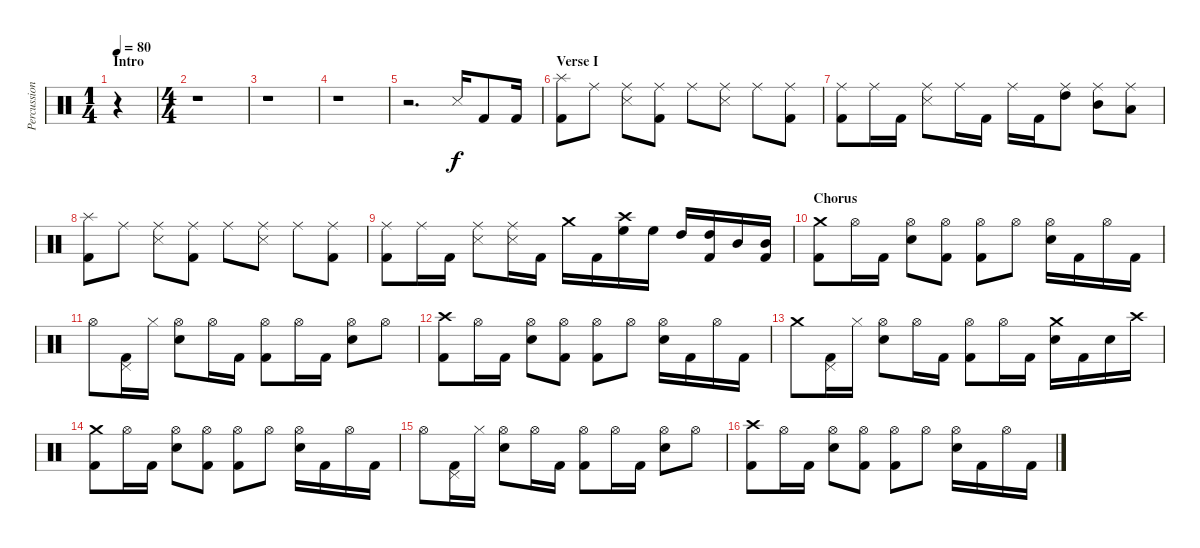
\track ("Percussion" "Percussion") {instrument percussion}
\staff {score}
\articulation defaults
\ts (1 4)
\section ("" "Intro")
\tempo 80
\clef neutral
\ks c
r.4{dy f volume 12 balance 8} |
\ts (4 4)
r.1 |
r.1 |
r.1 |
r.2{d} "Snare (side stick) 3".16 "Kick (hit) 2".8 "Kick (hit) 2".16 |
\section ("" "Verse I")
("Splash (hit)" "Kick (hit) 2").8 "Ride (middle)".8 ("Ride (middle)" "Snare (side stick) 3").8 ("Ride (middle)" "Kick (hit) 2").8 "Ride (middle)".8 ("Ride (middle)" "Snare (side stick) 3").8 "Ride (middle)".8 ("Ride (middle)" "Kick (hit) 2").8 |
("Ride (middle)" "Kick (hit) 2").8 "Ride (middle)".16 "Kick (hit) 2".16 ("Ride (middle)" "Snare (side stick) 3").8 "Ride (middle)".16 "Kick (hit) 2".16 "Ride (middle)".16 "Kick (hit) 2".16 ("Ride (middle)" "High Tom (hit)").8 ("Ride (middle)" "Mid Tom (hit)").8 ("Ride (middle)" "Low Tom (hit)").8 |
("Splash (hit)" "Kick (hit) 2").8 "Ride (middle)".8 ("Ride (middle)" "Snare (side stick) 3").8 ("Ride (middle)" "Kick (hit) 2").8 "Ride (middle)".8 ("Ride (middle)" "Snare (side stick) 3").8 "Ride (middle)".8 ("Ride (middle)" "Kick (hit) 2").8 |
("Ride (middle)" "Kick (hit) 2").8 "Ride (middle)".16 "Kick (hit) 2".16 ("Ride (middle)" "Snare (side stick) 3").8 ("Ride (middle)" "Snare (side stick) 3").16 "Kick (hit) 2".16 "Crash medium (hit)".16 "Kick (hit) 2".16 ("Crash high (hit)" "High Floor Tom (hit)").16 "High Floor Tom (hit)".16 "High Tom (hit)".16 ("High Tom (hit)" "Kick (hit) 2").16 "Mid Tom (hit)".16 ("Mid Tom (hit)" "Kick (hit) 2").16 |
\section ("" "Chorus")
("Crash medium (hit)" "Kick (hit) 2").8 "Hi-Hat (open)".16 "Kick (hit) 2".16 ("Hi-Hat (open)" "Electric Snare (hit)").8 ("Hi-Hat (open)" "Kick (hit) 2").8 ("Hi-Hat (open)" "Kick (hit) 2").8 "Hi-Hat (open)".8 ("Hi-Hat (open)" "Electric Snare (hit)").16 "Kick (hit) 2".16 "Hi-Hat (open)".16 "Kick (hit) 2".16 |
"Hi-Hat (open)".8 ("Pedal Hi-Hat (hit)" "Kick (hit) 2").16 "Hi-Hat (closed)".16 ("Hi-Hat (open)" "Electric Snare (hit)").8 "Hi-Hat (open)".16 "Kick (hit) 2".16 ("Hi-Hat (open)" "Kick (hit) 2").8 "Hi-Hat (open)".16 "Kick (hit) 2".16 ("Hi-Hat (open)" "Electric Snare (hit)").8 "Hi-Hat (open)".8 |
("Crash high (hit)" "Kick (hit) 2").8 "Hi-Hat (open)".16 "Kick (hit) 2".16 ("Hi-Hat (open)" "Electric Snare (hit)").8 ("Hi-Hat (open)" "Kick (hit) 2").8 ("Hi-Hat (open)" "Kick (hit) 2").8 "Hi-Hat (open)".8 ("Hi-Hat (open)" "Electric Snare (hit)").16 "Kick (hit) 2".16 "Hi-Hat (open)".16 "Kick (hit) 2".16 |
"Crash medium (hit)".8 ("Pedal Hi-Hat (hit)" "Kick (hit) 2").16 "Hi-Hat (closed)".16 ("Hi-Hat (open)" "Electric Snare (hit)").8 "Hi-Hat (open)".16 "Kick (hit) 2".16 ("Hi-Hat (open)" "Kick (hit) 2").8 "Hi-Hat (open)".16 "Kick (hit) 2".16 ("Crash medium (hit)" "Electric Snare (hit)").16 "Kick (hit) 2".16 "Electric Snare (hit)".16 "Crash high (hit)".16 |
("Crash medium (hit)" "Kick (hit) 2").8 "Hi-Hat (open)".16 "Kick (hit) 2".16 ("Hi-Hat (open)" "Electric Snare (hit)").8 ("Hi-Hat (open)" "Kick (hit) 2").8 ("Hi-Hat (open)" "Kick (hit) 2").8 "Hi-Hat (open)".8 ("Hi-Hat (open)" "Electric Snare (hit)").16 "Kick (hit) 2".16 "Hi-Hat (open)".16 "Kick (hit) 2".16 |
"Hi-Hat (open)".8 ("Pedal Hi-Hat (hit)" "Kick (hit) 2").16 "Hi-Hat (closed)".16 ("Hi-Hat (open)" "Electric Snare (hit)").8 "Hi-Hat (open)".16 "Kick (hit) 2".16 ("Hi-Hat (open)" "Kick (hit) 2").8 "Hi-Hat (open)".16 "Kick (hit) 2".16 ("Hi-Hat (open)" "Electric Snare (hit)").8 "Hi-Hat (open)".8 |
("Crash high (hit)" "Kick (hit) 2").8 "Hi-Hat (open)".16 "Kick (hit) 2".16 ("Hi-Hat (open)" "Electric Snare (hit)").8 ("Hi-Hat (open)" "Kick (hit) 2").8 ("Hi-Hat (open)" "Kick (hit) 2").8 "Hi-Hat (open)".8 ("Hi-Hat (open)" "Electric Snare (hit)").16 "Kick (hit) 2".16 "Hi-Hat (open)".16 "Kick (hit) 2".16
